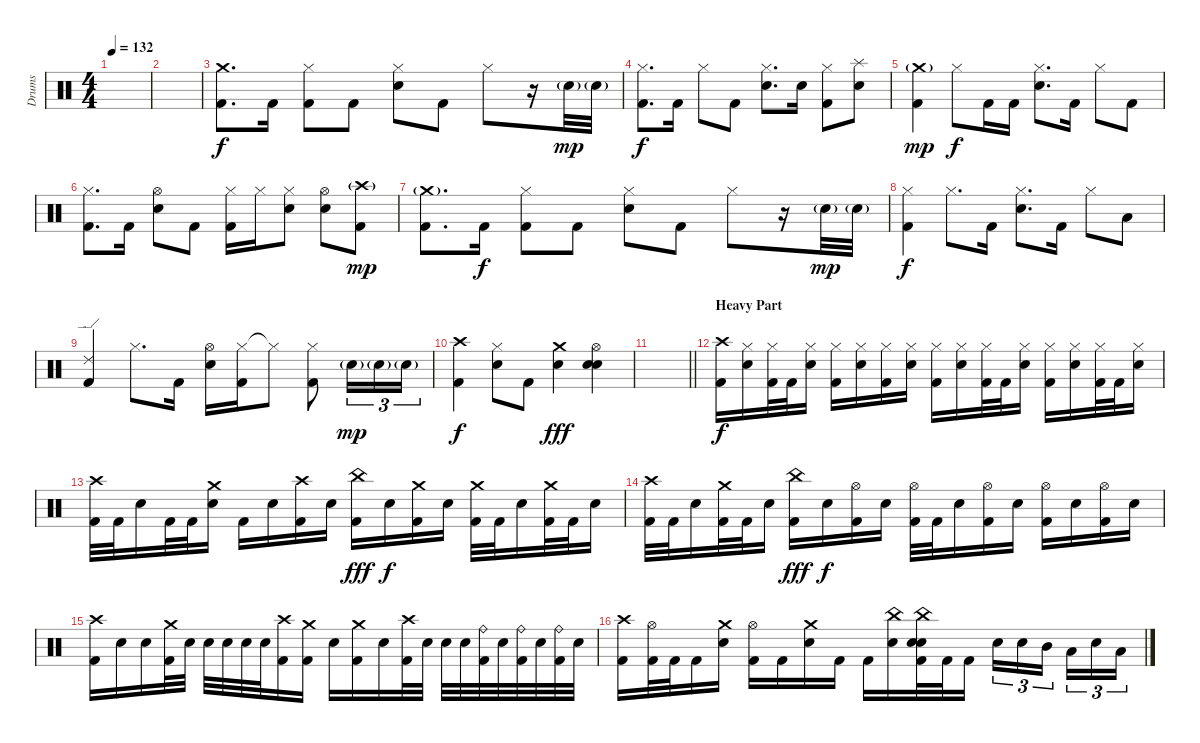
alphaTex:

\track ("Drums" "Drums") {instrument percussion}
\staff {score}
\articulation defaults
\ts (4 4)
\tempo 132
\clef neutral
\ks c
|
|
("Crash medium (hit)" "Kick (hit) 2").8{d} "Kick (hit) 2".16 ("Hi-Hat (closed)" "Kick (hit) 2").8 "Kick (hit) 2".8 ("Hi-Hat (closed)" "Electric Snare (hit)").8 "Kick (hit) 2".8 "Hi-Hat (closed)".8 r.16 "Electric Snare (hit)"{g}.32{dy mp} "Electric Snare (hit)"{g}.32 |
("Hi-Hat (closed)" "Kick (hit) 2").8{d dy f} "Kick (hit) 2".16 "Hi-Hat (closed)".8 "Kick (hit) 2".8 ("Hi-Hat (closed)" "Electric Snare (hit)").8{d} "Electric Snare (hit)".16 ("Hi-Hat (closed)" "Kick (hit) 2").8 ("Splash (hit)" "Electric Snare (hit)").8 |
("Crash medium (hit)"{g} "Kick (hit) 2").4{dy mp} "Hi-Hat (closed)".8{dy f} "Kick (hit) 2".16 "Kick (hit) 2".16 ("Hi-Hat (closed)" "Electric Snare (hit)").8{d} "Kick (hit) 2".16 "Hi-Hat (closed)".8 "Kick (hit) 2".8 |
("Hi-Hat (closed)" "Kick (hit) 2").8{d} "Kick (hit) 2".16 ("Hi-Hat (open)" "Electric Snare (hit)").8 "Kick (hit) 2".8 ("Hi-Hat (closed)" "Kick (hit) 2").16 "Hi-Hat (closed)".16 ("Hi-Hat (closed)" "Electric Snare (hit)").8 ("Hi-Hat (open)" "Electric Snare (hit)").8 ("Crash high (hit)"{g} "Kick (hit) 2").8{dy mp} |
("Crash medium (hit)"{g} "Kick (hit) 2").8{d} "Kick (hit) 2".16{dy f} ("Hi-Hat (closed)" "Kick (hit) 2").8 "Kick (hit) 2".8 ("Hi-Hat (closed)" "Electric Snare (hit)").8 "Kick (hit) 2".8 "Hi-Hat (closed)".8 r.16 "Electric Snare (hit)"{g}.32{dy mp} "Electric Snare (hit)"{g}.32 |
("Hi-Hat (closed)" "Kick (hit) 2").4{dy f} "Hi-Hat (closed)".8{d} "Kick (hit) 2".16 ("Hi-Hat (closed)" "Electric Snare (hit)").8{d} "Kick (hit) 2".16 "Hi-Hat (closed)".8 "Low Tom (hit)".8 |
("Ride (edge) 2" "Kick (hit) 2").4 "Hi-Hat (closed)".8{d} "Kick (hit) 2".16 ("Hi-Hat (open)" "Electric Snare (hit)").16 ("Hi-Hat (closed)" "Kick (hit) 2").16 "Hi-Hat (closed)"{t}.8 ("Hi-Hat (closed)" "Kick (hit) 2").8 "Electric Snare (hit)"{g}.16{tu (3 2) dy mp} "Electric Snare (hit)"{g}.16{tu (3 2)} "Electric Snare (hit)"{g}.16{tu (3 2)} |
("Crash high (hit)" "Kick (hit) 2").4{dy f} ("Hi-Hat (closed)" "Electric Snare (hit)").8 "Kick (hit) 2".8 ("Crash medium (hit)" "Electric Snare (hit)").4{dy fff} ("Hi-Hat (open)" "Electric Snare (hit)" "Snare (hit) 2").4 |
\barLineRight lightlight
|
\section ("" "Heavy Part")
("Crash high (hit)" "Kick (hit) 2").16{dy f volume 14} ("Hi-Hat (closed)" "Electric Snare (hit)").16 ("Hi-Hat (closed)" "Kick (hit) 2").32 "Kick (hit) 2".32 ("Hi-Hat (closed)" "Electric Snare (hit)").16 ("Hi-Hat (closed)" "Kick (hit) 2").16 ("Hi-Hat (closed)" "Electric Snare (hit)").16 ("Hi-Hat (closed)" "Kick (hit) 2").16 ("Hi-Hat (closed)" "Electric Snare (hit)").16 ("Hi-Hat (closed)" "Kick (hit) 2").16 ("Hi-Hat (closed)" "Electric Snare (hit)").16 ("Hi-Hat (closed)" "Kick (hit) 2").32 "Kick (hit) 2".32 ("Hi-Hat (closed)" "Electric Snare (hit)").16 ("Hi-Hat (closed)" "Kick (hit) 2").16 ("Hi-Hat (closed)" "Electric Snare (hit)").16 ("Hi-Hat (closed)" "Kick (hit) 2").32 "Kick (hit) 2".32 ("Hi-Hat (closed)" "Electric Snare (hit)").16 |
("Crash high (hit)" "Kick (hit) 2").32 "Kick (hit) 2".32 "Electric Snare (hit)".16 "Kick (hit) 2".32 "Kick (hit) 2".32 ("Crash medium (hit)" "Electric Snare (hit)").16 "Kick (hit) 2".16 "Electric Snare (hit)".16 ("Crash high (hit)" "Kick (hit) 2").16 "Electric Snare (hit)".16 ("China (hit)" "Kick (hit) 2").16{dy fff} "Electric Snare (hit)".16{dy f} ("Crash medium (hit)" "Kick (hit) 2").16 "Electric Snare (hit)".16 ("Crash medium (hit)" "Kick (hit) 2").32 "Kick (hit) 2".32 "Electric Snare (hit)".16 ("Crash medium (hit)" "Kick (hit) 2").32 "Kick (hit) 2".32 "Electric Snare (hit)".16 |
("Crash high (hit)" "Kick (hit) 2").32 "Kick (hit) 2".32 "Electric Snare (hit)".16 ("Crash medium (hit)" "Kick (hit) 2").32 "Kick (hit) 2".32 "Electric Snare (hit)".16 ("China (hit)" "Kick (hit) 2").16{dy fff} "Electric Snare (hit)".16{dy f} ("Hi-Hat (open)" "Kick (hit) 2").16 "Electric Snare (hit)".16 ("Hi-Hat (open)" "Kick (hit) 2").32 "Kick (hit) 2".32 "Electric Snare (hit)".16 ("Hi-Hat (open)" "Kick (hit) 2").16 "Electric Snare (hit)".16 ("Hi-Hat (open)" "Kick (hit) 2").16 "Electric Snare (hit)".16 ("Hi-Hat (open)" "Kick (hit) 2").16 "Electric Snare (hit)".16 |
("Crash high (hit)" "Kick (hit) 2").16 "Electric Snare (hit)".16 "Electric Snare (hit)".16 ("Crash medium (hit)" "Kick (hit) 2").32 "Electric Snare (hit)".32 "Electric Snare (hit)".32 "Electric Snare (hit)".32 "Electric Snare (hit)".32 "Electric Snare (hit)".32 ("Crash high (hit)" "Kick (hit) 2").16 ("Crash medium (hit)" "Kick (hit) 2").16 "Electric Snare (hit)".16 ("Crash medium (hit)" "Kick (hit) 2").16 "Electric Snare (hit)".16 ("Crash high (hit)" "Kick (hit) 2").32 "Electric Snare (hit)".32 "Electric Snare (hit)".32 "Electric Snare (hit)".32 ("Ride (bell)" "Kick (hit) 2").32 "Electric Snare (hit)".32 ("Ride (bell)" "Kick (hit) 2").32 "Electric Snare (hit)".32 ("Ride (bell)" "Kick (hit) 2").32 "Electric Snare (hit)".32 |
("Crash high (hit)" "Kick (hit) 2").16 ("Hi-Hat (open)" "Kick (hit) 2").32 "Kick (hit) 2".32 "Kick (hit) 2".16 ("Crash medium (hit)" "Electric Snare (hit)").16 ("Hi-Hat (open)" "Kick (hit) 2").16 "Kick (hit) 2".16 ("Crash medium (hit)" "Electric Snare (hit)").16 "Kick (hit) 2".16 "Kick (hit) 2".16 ("China (hit)" "Electric Snare (hit)").16 ("China (hit)" "Snare (hit) 2" "Electric Snare (hit)" "Kick (hit) 2").32 "Kick (hit) 2".32 "Kick (hit) 2".16 "Electric Snare (hit)".16{tu (3 2)} "Electric Snare (hit)".16{tu (3 2)} "Mid Tom (hit)".16{tu (3 2) beam splitsecondary} "Low Tom (hit)".16{tu (3 2)} "Electric Snare (hit)".16{tu (3 2)} "Low Floor Tom (hit)".16{tu (3 2)}
